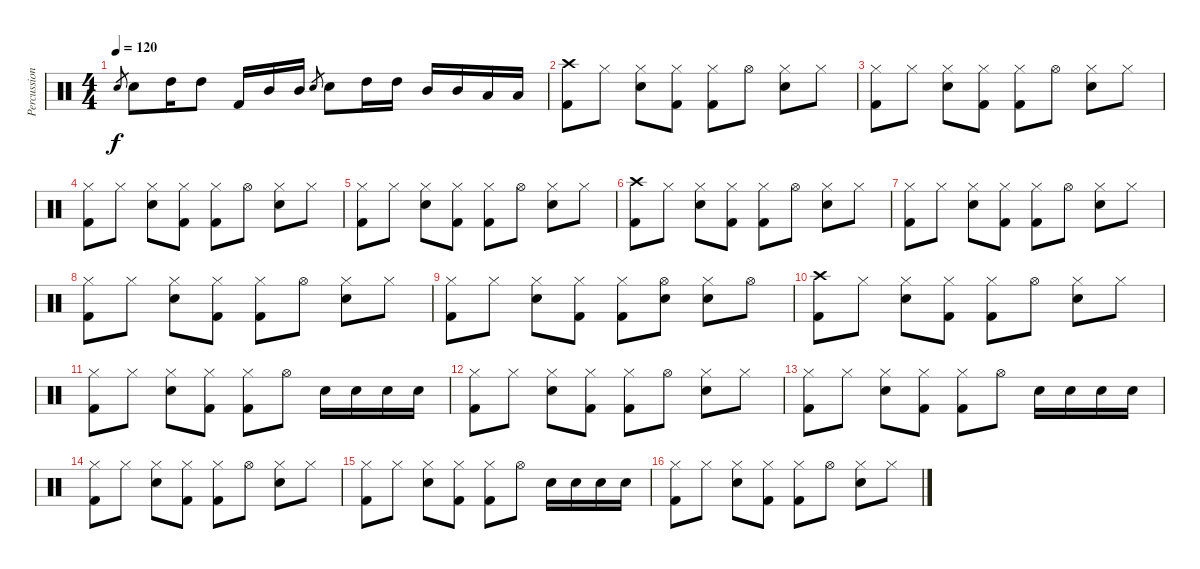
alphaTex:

\track ("Percussion" "Percussion") {instrument percussion}
\staff {score}
\articulation defaults
\ts (4 4)
\tempo 120
\clef neutral
\ks c "Electric Snare (hit)".8{gr dy f} "Electric Snare (hit)".8 "High Tom (hit)".16 "High Tom (hit)".8 "Kick (hit) 2".16 "Mid Tom (hit)".16 "Mid Tom (hit)".16 "Electric Snare (hit)".8{gr} "Electric Snare (hit)".8 "High Tom (hit)".16 "High Tom (hit)".16 "Mid Tom (hit)".16 "Mid Tom (hit)".16 "Low Tom (hit)".16 "Low Tom (hit)".16
|
("Crash high (hit)" "Kick (hit) 2").8 "Hi-Hat (closed)".8 ("Hi-Hat (closed)" "Electric Snare (hit)").8 ("Hi-Hat (closed)" "Kick (hit) 2").8 ("Hi-Hat (closed)" "Kick (hit) 2").8 "Hi-Hat (open)".8 ("Hi-Hat (closed)" "Electric Snare (hit)").8 "Hi-Hat (closed)".8 |
("Hi-Hat (closed)" "Kick (hit) 2").8 "Hi-Hat (closed)".8 ("Hi-Hat (closed)" "Electric Snare (hit)").8 ("Hi-Hat (closed)" "Kick (hit) 2").8 ("Hi-Hat (closed)" "Kick (hit) 2").8 "Hi-Hat (open)".8 ("Hi-Hat (closed)" "Electric Snare (hit)").8 "Hi-Hat (closed)".8 |
("Hi-Hat (closed)" "Kick (hit) 2").8 "Hi-Hat (closed)".8 ("Hi-Hat (closed)" "Electric Snare (hit)").8 ("Hi-Hat (closed)" "Kick (hit) 2").8 ("Hi-Hat (closed)" "Kick (hit) 2").8 "Hi-Hat (open)".8 ("Hi-Hat (closed)" "Electric Snare (hit)").8 "Hi-Hat (closed)".8 |
("Hi-Hat (closed)" "Kick (hit) 2").8 "Hi-Hat (closed)".8 ("Hi-Hat (closed)" "Electric Snare (hit)").8 ("Hi-Hat (closed)" "Kick (hit) 2").8 ("Hi-Hat (closed)" "Kick (hit) 2").8 "Hi-Hat (open)".8 ("Hi-Hat (closed)" "Electric Snare (hit)").8 "Hi-Hat (closed)".8 |
("Crash high (hit)" "Kick (hit) 2").8 "Hi-Hat (closed)".8 ("Hi-Hat (closed)" "Electric Snare (hit)").8 ("Hi-Hat (closed)" "Kick (hit) 2").8 ("Hi-Hat (closed)" "Kick (hit) 2").8 "Hi-Hat (open)".8 ("Hi-Hat (closed)" "Electric Snare (hit)").8 "Hi-Hat (closed)".8 |
("Hi-Hat (closed)" "Kick (hit) 2").8 "Hi-Hat (closed)".8 ("Hi-Hat (closed)" "Electric Snare (hit)").8 ("Hi-Hat (closed)" "Kick (hit) 2").8 ("Hi-Hat (closed)" "Kick (hit) 2").8 "Hi-Hat (open)".8 ("Hi-Hat (closed)" "Electric Snare (hit)").8 "Hi-Hat (closed)".8 |
("Hi-Hat (closed)" "Kick (hit) 2").8 "Hi-Hat (closed)".8 ("Hi-Hat (closed)" "Electric Snare (hit)").8 ("Hi-Hat (closed)" "Kick (hit) 2").8 ("Hi-Hat (closed)" "Kick (hit) 2").8 "Hi-Hat (open)".8 ("Hi-Hat (closed)" "Electric Snare (hit)").8 "Hi-Hat (closed)".8 |
("Hi-Hat (closed)" "Kick (hit) 2").8 "Hi-Hat (closed)".8 ("Hi-Hat (closed)" "Electric Snare (hit)").8 ("Hi-Hat (closed)" "Kick (hit) 2").8 ("Hi-Hat (closed)" "Kick (hit) 2").8 ("Hi-Hat (open)" "Electric Snare (hit)").8 ("Hi-Hat (closed)" "Electric Snare (hit)").8 "Hi-Hat (open)".8 |
("Crash high (hit)" "Kick (hit) 2").8 "Hi-Hat (closed)".8 ("Hi-Hat (closed)" "Electric Snare (hit)").8 ("Hi-Hat (closed)" "Kick (hit) 2").8 ("Hi-Hat (closed)" "Kick (hit) 2").8 "Hi-Hat (open)".8 ("Hi-Hat (closed)" "Electric Snare (hit)").8 "Hi-Hat (closed)".8 |
("Hi-Hat (closed)" "Kick (hit) 2").8 "Hi-Hat (closed)".8 ("Hi-Hat (closed)" "Electric Snare (hit)").8 ("Hi-Hat (closed)" "Kick (hit) 2").8 ("Hi-Hat (closed)" "Kick (hit) 2").8 "Hi-Hat (open)".8 "Electric Snare (hit)".16 "Electric Snare (hit)".16 "Electric Snare (hit)".16 "Electric Snare (hit)".16 |
("Hi-Hat (closed)" "Kick (hit) 2").8 "Hi-Hat (closed)".8 ("Hi-Hat (closed)" "Electric Snare (hit)").8 ("Hi-Hat (closed)" "Kick (hit) 2").8 ("Hi-Hat (closed)" "Kick (hit) 2").8 "Hi-Hat (open)".8 ("Hi-Hat (closed)" "Electric Snare (hit)").8 "Hi-Hat (closed)".8 |
("Hi-Hat (closed)" "Kick (hit) 2").8 "Hi-Hat (closed)".8 ("Hi-Hat (closed)" "Electric Snare (hit)").8 ("Hi-Hat (closed)" "Kick (hit) 2").8 ("Hi-Hat (closed)" "Kick (hit) 2").8 "Hi-Hat (open)".8 "Electric Snare (hit)".16 "Electric Snare (hit)".16 "Electric Snare (hit)".16 "Electric Snare (hit)".16 |
("Hi-Hat (closed)" "Kick (hit) 2").8 "Hi-Hat (closed)".8 ("Hi-Hat (closed)" "Electric Snare (hit)").8 ("Hi-Hat (closed)" "Kick (hit) 2").8 ("Hi-Hat (closed)" "Kick (hit) 2").8 "Hi-Hat (open)".8 ("Hi-Hat (closed)" "Electric Snare (hit)").8 "Hi-Hat (closed)".8 |
("Hi-Hat (closed)" "Kick (hit) 2").8 "Hi-Hat (closed)".8 ("Hi-Hat (closed)" "Electric Snare (hit)").8 ("Hi-Hat (closed)" "Kick (hit) 2").8 ("Hi-Hat (closed)" "Kick (hit) 2").8 "Hi-Hat (open)".8 "Electric Snare (hit)".16 "Electric Snare (hit)".16 "Electric Snare (hit)".16 "Electric Snare (hit)".16 |
("Hi-Hat (closed)" "Kick (hit) 2").8 "Hi-Hat (closed)".8 ("Hi-Hat (closed)" "Electric Snare (hit)").8 ("Hi-Hat (closed)" "Kick (hit) 2").8 ("Hi-Hat (closed)" "Kick (hit) 2").8 "Hi-Hat (open)".8 ("Hi-Hat (closed)" "Electric Snare (hit)").8 "Hi-Hat (closed)".8
